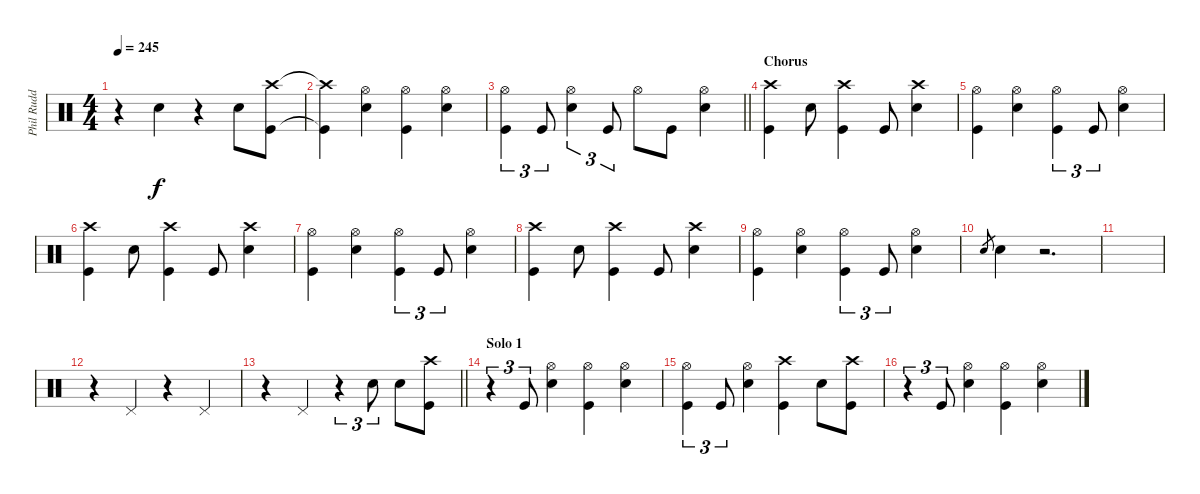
\track ("Phil Rudd" "Phil Rudd") {instrument percussion}
\staff {score}
\articulation defaults
\ts (4 4)
\tempo 245
\clef neutral
\ks c
r.4{dy f} "Snare (hit) 2".4 r.4 "Snare (hit) 2".8 ("Crash high (hit)" "Kick (hit)").8 |
("Crash high (hit)"{t} "Kick (hit)"{t}).4 ("Hi-Hat (open)" "Snare (hit) 2").4 ("Hi-Hat (open)" "Kick (hit)").4 ("Hi-Hat (open)" "Snare (hit) 2").4 |
\barLineRight lightlight
("Hi-Hat (open)" "Kick (hit)").4{tu (3 2)} "Kick (hit)".8{tu (3 2)} ("Hi-Hat (open)" "Snare (hit) 2").4{tu (3 2)} "Kick (hit)".8{tu (3 2)} "Hi-Hat (open)".8 "Kick (hit)".8 ("Hi-Hat (open)" "Snare (hit) 2").4 |
\section ("" "Chorus")
("Crash high (hit)" "Kick (hit)").4 "Snare (hit) 2".8 ("Crash high (hit)" "Kick (hit)").4 "Kick (hit)".8 ("Crash high (hit)" "Snare (hit) 2").4 |
("Hi-Hat (open)" "Kick (hit)").4 ("Hi-Hat (open)" "Snare (hit) 2").4 ("Hi-Hat (open)" "Kick (hit)").4{tu (3 2)} "Kick (hit)".8{tu (3 2)} ("Hi-Hat (open)" "Snare (hit) 2").4 |
("Crash high (hit)" "Kick (hit)").4 "Snare (hit) 2".8 ("Crash high (hit)" "Kick (hit)").4 "Kick (hit)".8 ("Crash high (hit)" "Snare (hit) 2").4 |
("Hi-Hat (open)" "Kick (hit)").4 ("Hi-Hat (open)" "Snare (hit) 2").4 ("Hi-Hat (open)" "Kick (hit)").4{tu (3 2)} "Kick (hit)".8{tu (3 2)} ("Hi-Hat (open)" "Snare (hit) 2").4 |
("Crash high (hit)" "Kick (hit)").4 "Snare (hit) 2".8 ("Crash high (hit)" "Kick (hit)").4 "Kick (hit)".8 ("Crash high (hit)" "Snare (hit) 2").4 |
("Hi-Hat (open)" "Kick (hit)").4 ("Hi-Hat (open)" "Snare (hit) 2").4 ("Hi-Hat (open)" "Kick (hit)").4{tu (3 2)} "Kick (hit)".8{tu (3 2)} ("Hi-Hat (open)" "Snare (hit) 2").4 |
"Snare (hit) 2".8{gr} "Snare (hit) 2".4 r.2{d} |
|
r.4 "Pedal Hi-Hat (hit)".4 r.4 "Pedal Hi-Hat (hit)".4 |
\barLineRight lightlight
r.4 "Pedal Hi-Hat (hit)".4 r.4{tu (3 2)} "Snare (hit) 2".8{tu (3 2)} "Snare (hit) 2".8 ("Crash high (hit)" "Kick (hit)").8 |
\section ("" "Solo 1")
r.4{tu (3 2)} "Kick (hit)".8{tu (3 2)} ("Hi-Hat (open)" "Snare (hit) 2").4 ("Hi-Hat (open)" "Kick (hit)").4 ("Hi-Hat (open)" "Snare (hit) 2").4 |
("Hi-Hat (open)" "Kick (hit)").4{tu (3 2)} "Kick (hit)".8{tu (3 2)} ("Hi-Hat (open)" "Snare (hit) 2").4 ("Crash high (hit)" "Kick (hit)").4 "Snare (hit) 2".8 ("Crash high (hit)" "Kick (hit)").8 |
r.4{tu (3 2)} "Kick (hit)".8{tu (3 2)} ("Hi-Hat (open)" "Snare (hit) 2").4 ("Hi-Hat (open)" "Kick (hit)").4 ("Hi-Hat (open)" "Snare (hit) 2").4
